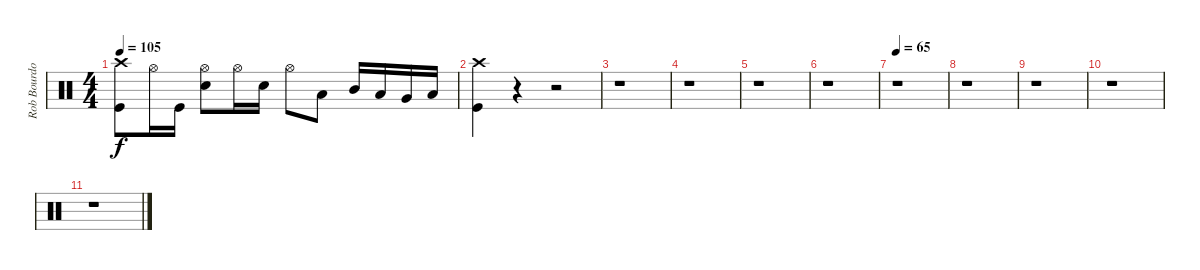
\track ("Rob Bourdon - Drums" "Rob Bourdo") {instrument percussion}
\staff {score}
\articulation defaults
\ts (4 4)
\tempo 105
\clef neutral
\ks c
("Crash high (hit)" "Kick (hit)").8{dy f} "Hi-Hat (open)".16 "Kick (hit)".16 ("Hi-Hat (open)" "Electric Snare (hit)").8 "Hi-Hat (open)".16 "Electric Snare (hit)".16 "Hi-Hat (open)".8 "Low Tom (hit)".8 "Mid Tom (hit)".16 "Low Tom (hit)".16 "Very Low Tom (hit)".16 "Low Floor Tom (hit)".16 |
("Crash high (hit)" "Kick (hit)").4 r.4 r.2 |
r.1 |
r.1 |
r.1 |
r.1 |
\tempo 65
r.1 |
r.1 |
r.1 |
r.1 |
r.1
